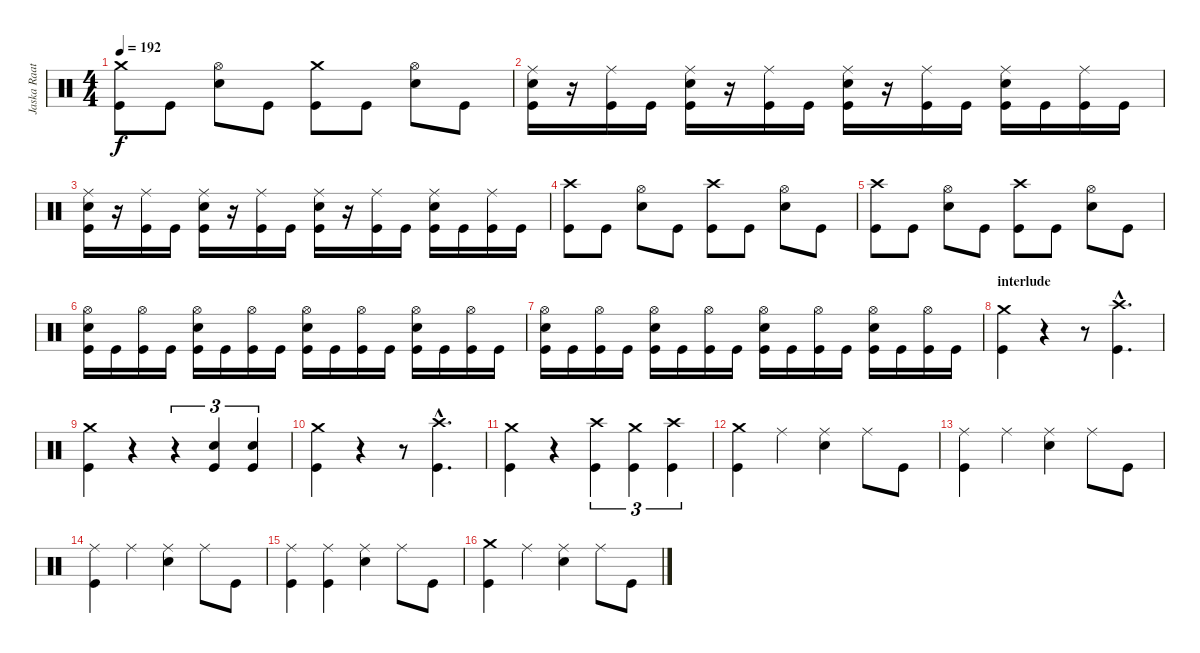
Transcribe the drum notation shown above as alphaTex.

\track ("Jaska Raatikainen" "Jaska Raat") {instrument percussion}
\staff {score}
\articulation defaults
\ts (4 4)
\tempo 192
\clef neutral
\ks c
("Crash medium (hit)" "Kick (hit)").8{dy f} "Kick (hit)".8 ("Hi-Hat (open)" "Electric Snare (hit)").8 "Kick (hit)".8 ("Crash medium (hit)" "Kick (hit)").8 "Kick (hit)".8 ("Hi-Hat (open)" "Electric Snare (hit)").8 "Kick (hit)".8 |
("Ride (middle)" "Electric Snare (hit)" "Kick (hit)").16 r.16 ("Ride (middle)" "Kick (hit)").16 "Kick (hit)".16 ("Ride (middle)" "Electric Snare (hit)" "Kick (hit)").16 r.16 ("Ride (middle)" "Kick (hit)").16 "Kick (hit)".16 ("Ride (middle)" "Electric Snare (hit)" "Kick (hit)").16 r.16 ("Ride (middle)" "Kick (hit)").16 "Kick (hit)".16 ("Ride (middle)" "Electric Snare (hit)" "Kick (hit)").16 "Kick (hit)".16 ("Ride (middle)" "Kick (hit)").16 "Kick (hit)".16 |
("Ride (middle)" "Electric Snare (hit)" "Kick (hit)").16 r.16 ("Ride (middle)" "Kick (hit)").16 "Kick (hit)".16 ("Ride (middle)" "Electric Snare (hit)" "Kick (hit)").16 r.16 ("Ride (middle)" "Kick (hit)").16 "Kick (hit)".16 ("Ride (middle)" "Electric Snare (hit)" "Kick (hit)").16 r.16 ("Ride (middle)" "Kick (hit)").16 "Kick (hit)".16 ("Ride (middle)" "Electric Snare (hit)" "Kick (hit)").16 "Kick (hit)".16 ("Ride (middle)" "Kick (hit)").16 "Kick (hit)".16 |
("Crash high (hit)" "Kick (hit)").8 "Kick (hit)".8 ("Hi-Hat (open)" "Electric Snare (hit)").8 "Kick (hit)".8 ("Crash high (hit)" "Kick (hit)").8 "Kick (hit)".8 ("Hi-Hat (open)" "Electric Snare (hit)").8 "Kick (hit)".8 |
("Crash high (hit)" "Kick (hit)").8 "Kick (hit)".8 ("Hi-Hat (open)" "Electric Snare (hit)").8 "Kick (hit)".8 ("Crash high (hit)" "Kick (hit)").8 "Kick (hit)".8 ("Hi-Hat (open)" "Electric Snare (hit)").8 "Kick (hit)".8 |
("Hi-Hat (open)" "Electric Snare (hit)" "Kick (hit)").16 "Kick (hit)".16 ("Hi-Hat (open)" "Kick (hit)").16 "Kick (hit)".16 ("Hi-Hat (open)" "Electric Snare (hit)" "Kick (hit)").16 "Kick (hit)".16 ("Hi-Hat (open)" "Kick (hit)").16 "Kick (hit)".16 ("Hi-Hat (open)" "Electric Snare (hit)" "Kick (hit)").16 "Kick (hit)".16 ("Hi-Hat (open)" "Kick (hit)").16 "Kick (hit)".16 ("Hi-Hat (open)" "Electric Snare (hit)" "Kick (hit)").16 "Kick (hit)".16 ("Hi-Hat (open)" "Kick (hit)").16 "Kick (hit)".16 |
("Hi-Hat (open)" "Electric Snare (hit)" "Kick (hit)").16 "Kick (hit)".16 ("Hi-Hat (open)" "Kick (hit)").16 "Kick (hit)".16 ("Hi-Hat (open)" "Electric Snare (hit)" "Kick (hit)").16 "Kick (hit)".16 ("Hi-Hat (open)" "Kick (hit)").16 "Kick (hit)".16 ("Hi-Hat (open)" "Electric Snare (hit)" "Kick (hit)").16 "Kick (hit)".16 ("Hi-Hat (open)" "Kick (hit)").16 "Kick (hit)".16 ("Hi-Hat (open)" "Electric Snare (hit)" "Kick (hit)").16 "Kick (hit)".16 ("Hi-Hat (open)" "Kick (hit)").16 "Kick (hit)".16 |
\section ("" "interlude")
("Crash medium (hit)" "Kick (hit)").4 r.4 r.8 ("Crash high (hit)"{hac} "Kick (hit)"{hac}).4{d} |
("Crash medium (hit)" "Kick (hit)").4 r.4 r.4{tu (3 2)} ("Electric Snare (hit)" "Kick (hit)").4{tu (3 2)} ("Electric Snare (hit)" "Kick (hit)").4{tu (3 2)} |
("Crash medium (hit)" "Kick (hit)").4 r.4 r.8 ("Crash high (hit)"{hac} "Kick (hit)"{hac}).4{d} |
("Crash medium (hit)" "Kick (hit)").4 r.4 ("Crash high (hit)" "Kick (hit)").4{tu (3 2)} ("Crash medium (hit)" "Kick (hit)").4{tu (3 2)} ("Crash high (hit)" "Kick (hit)").4{tu (3 2)} |
("Crash medium (hit)" "Kick (hit)").4 "Ride (middle)".4 ("Ride (middle)" "Electric Snare (hit)").4 "Ride (middle)".8 "Kick (hit)".8 |
("Ride (middle)" "Kick (hit)").4 "Ride (middle)".4 ("Ride (middle)" "Electric Snare (hit)").4 "Ride (middle)".8 "Kick (hit)".8 |
("Ride (middle)" "Kick (hit)").4 "Ride (middle)".4 ("Ride (middle)" "Electric Snare (hit)").4 "Ride (middle)".8 "Kick (hit)".8 |
("Ride (middle)" "Kick (hit)").4 ("Ride (middle)" "Kick (hit)").4 ("Ride (middle)" "Electric Snare (hit)").4 "Ride (middle)".8 "Kick (hit)".8 |
("Crash medium (hit)" "Kick (hit)").4 "Ride (middle)".4 ("Ride (middle)" "Electric Snare (hit)").4 "Ride (middle)".8 "Kick (hit)".8
